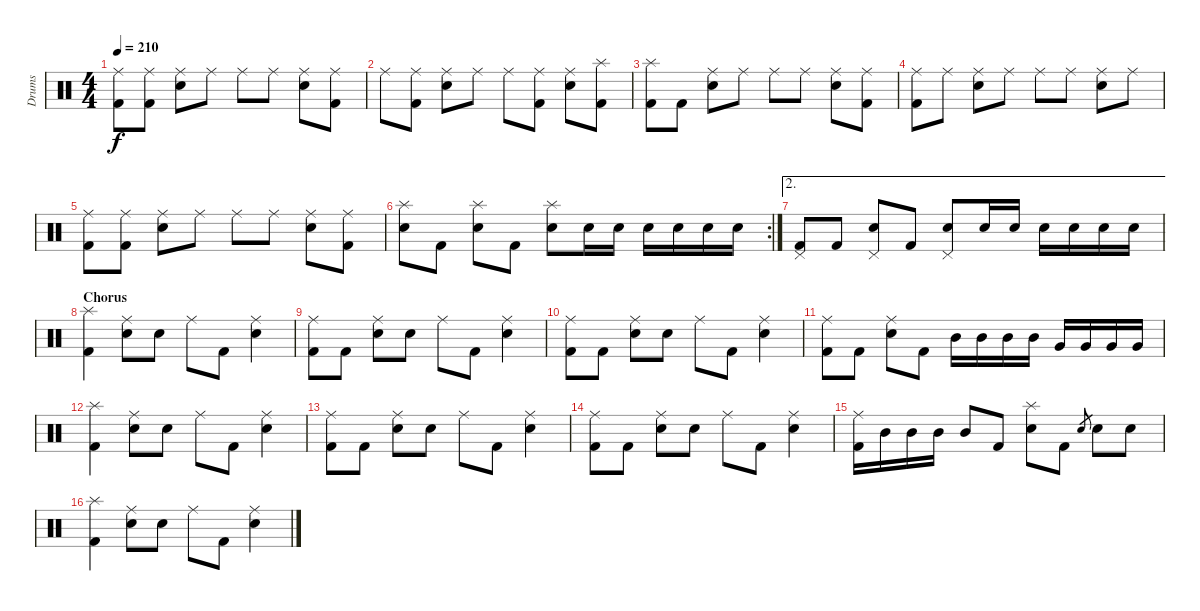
\track ("Drums" "Drums") {instrument percussion}
\staff {score}
\articulation defaults
\ts (4 4)
\tempo 210
\clef neutral
\ks c
("Ride (middle)" "Kick (hit) 2").8{dy f} ("Ride (middle)" "Kick (hit) 2").8 ("Ride (middle)" "Electric Snare (hit)").8 "Ride (middle)".8 "Ride (middle)".8 "Ride (middle)".8 ("Ride (middle)" "Electric Snare (hit)").8 ("Ride (middle)" "Kick (hit) 2").8 |
"Ride (middle)".8 ("Ride (middle)" "Kick (hit) 2").8 ("Ride (middle)" "Electric Snare (hit)").8 "Ride (middle)".8 "Ride (middle)".8 ("Ride (middle)" "Kick (hit) 2").8 ("Ride (middle)" "Electric Snare (hit)").8 ("Splash (hit)" "Kick (hit) 2").8 |
("Splash (hit)" "Kick (hit) 2").8 "Kick (hit) 2".8 ("Ride (middle)" "Electric Snare (hit)").8 "Ride (middle)".8 "Ride (middle)".8 "Ride (middle)".8 ("Ride (middle)" "Electric Snare (hit)").8 ("Ride (middle)" "Kick (hit) 2").8 |
("Ride (middle)" "Kick (hit) 2").8 "Ride (middle)".8 ("Ride (middle)" "Electric Snare (hit)").8 "Ride (middle)".8 "Ride (middle)".8 "Ride (middle)".8 ("Ride (middle)" "Electric Snare (hit)").8 "Ride (middle)".8 |
("Ride (middle)" "Kick (hit) 2").8 ("Ride (middle)" "Kick (hit) 2").8 ("Ride (middle)" "Electric Snare (hit)").8 "Ride (middle)".8 "Ride (middle)".8 "Ride (middle)".8 ("Ride (middle)" "Electric Snare (hit)").8 ("Ride (middle)" "Kick (hit) 2").8 |
\rc 2
("Splash (hit)" "Electric Snare (hit)").8 "Kick (hit) 2".8 ("Splash (hit)" "Electric Snare (hit)").8 "Kick (hit) 2".8 ("Splash (hit)" "Electric Snare (hit)").8 "Electric Snare (hit)".16 "Electric Snare (hit)".16 "Electric Snare (hit)".16 "Electric Snare (hit)".16 "Electric Snare (hit)".16 "Electric Snare (hit)".16 |
\ae 2
("Pedal Hi-Hat (hit)" "Kick (hit) 2").8 "Kick (hit) 2".8 ("Pedal Hi-Hat (hit)" "Electric Snare (hit)").8 "Kick (hit) 2".8 ("Pedal Hi-Hat (hit)" "Electric Snare (hit)").8 "Electric Snare (hit)".16 "Electric Snare (hit)".16 "Electric Snare (hit)".16 "Electric Snare (hit)".16 "Electric Snare (hit)".16 "Electric Snare (hit)".16 |
\section ("" "Chorus")
("Splash (hit)" "Kick (hit) 2").4 ("Ride (middle)" "Electric Snare (hit)").8 "Electric Snare (hit)".8 "Ride (middle)".8 "Kick (hit) 2".8 ("Ride (middle)" "Electric Snare (hit)").4 |
("Ride (middle)" "Kick (hit) 2").8 "Kick (hit) 2".8 ("Ride (middle)" "Electric Snare (hit)").8 "Electric Snare (hit)".8 "Ride (middle)".8 "Kick (hit) 2".8 ("Ride (middle)" "Electric Snare (hit)").4 |
("Ride (middle)" "Kick (hit) 2").8 "Kick (hit) 2".8 ("Ride (middle)" "Electric Snare (hit)").8 "Electric Snare (hit)".8 "Ride (middle)".8 "Kick (hit) 2".8 ("Ride (middle)" "Electric Snare (hit)").4 |
("Ride (middle)" "Kick (hit) 2").8 "Kick (hit) 2".8 ("Ride (middle)" "Electric Snare (hit)").8 "Kick (hit) 2".8 "Mid Tom (hit)".16 "Mid Tom (hit)".16 "Mid Tom (hit)".16 "Mid Tom (hit)".16 "Very Low Tom (hit)".16 "Very Low Tom (hit)".16 "Very Low Tom (hit)".16 "Very Low Tom (hit)".16 |
("Splash (hit)" "Kick (hit) 2").4 ("Ride (middle)" "Electric Snare (hit)").8 "Electric Snare (hit)".8 "Ride (middle)".8 "Kick (hit) 2".8 ("Ride (middle)" "Electric Snare (hit)").4 |
("Ride (middle)" "Kick (hit) 2").8 "Kick (hit) 2".8 ("Ride (middle)" "Electric Snare (hit)").8 "Electric Snare (hit)".8 "Ride (middle)".8 "Kick (hit) 2".8 ("Ride (middle)" "Electric Snare (hit)").4 |
("Ride (middle)" "Kick (hit) 2").8 "Kick (hit) 2".8 ("Ride (middle)" "Electric Snare (hit)").8 "Electric Snare (hit)".8 "Ride (middle)".8 "Kick (hit) 2".8 ("Ride (middle)" "Electric Snare (hit)").4 |
("Ride (middle)" "Kick (hit) 2").16 "Mid Tom (hit)".16 "Mid Tom (hit)".16 "Mid Tom (hit)".16 "Mid Tom (hit)".8 "Kick (hit) 2".8 ("Splash (hit)" "Electric Snare (hit)").8 "Kick (hit) 2".8 "Electric Snare (hit)".8{gr} "Electric Snare (hit)".8 "Electric Snare (hit)".8 |
("Splash (hit)" "Kick (hit) 2").4 ("Ride (middle)" "Electric Snare (hit)").8 "Electric Snare (hit)".8 "Ride (middle)".8 "Kick (hit) 2".8 ("Ride (middle)" "Electric Snare (hit)").4
